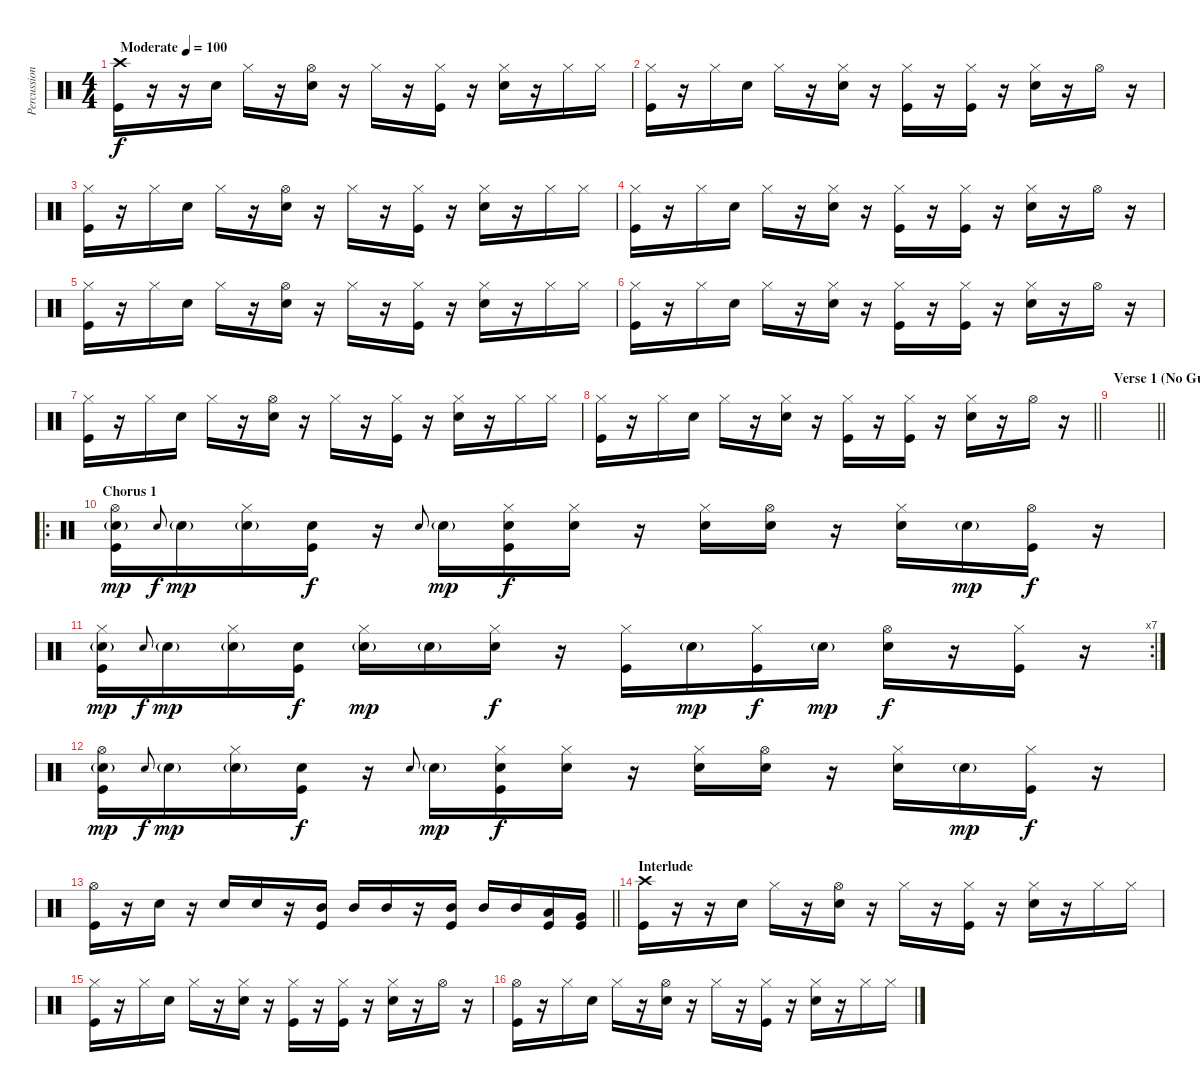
\track ("Percussion" "Percussion") {instrument percussion}
\staff {score}
\articulation defaults
\ts (4 4)
\tempo (100 "Moderate")
\clef neutral
\ks c
("Crash high (hit)" "Kick (hit)").16{dy f} r.16 r.16 "Snare (hit) 2".16 "Hi-Hat (closed)".16 r.16 ("Hi-Hat (open)" "Snare (hit) 2").16 r.16 "Hi-Hat (closed)".16 r.16 ("Hi-Hat (closed)" "Kick (hit)").16 r.16 ("Hi-Hat (closed)" "Snare (hit) 2").16 r.16 "Hi-Hat (closed)".16 "Hi-Hat (closed)".16 |
("Hi-Hat (closed)" "Kick (hit)").16 r.16 "Hi-Hat (closed)".16 "Snare (hit) 2".16 "Hi-Hat (closed)".16 r.16 ("Hi-Hat (closed)" "Snare (hit) 2").16 r.16 ("Hi-Hat (closed)" "Kick (hit)").16 r.16 ("Hi-Hat (closed)" "Kick (hit)").16 r.16 ("Hi-Hat (closed)" "Snare (hit) 2").16 r.16 "Hi-Hat (open)".16 r.16 |
("Hi-Hat (closed)" "Kick (hit)").16 r.16 "Hi-Hat (closed)".16 "Snare (hit) 2".16 "Hi-Hat (closed)".16 r.16 ("Hi-Hat (open)" "Snare (hit) 2").16 r.16 "Hi-Hat (closed)".16 r.16 ("Hi-Hat (closed)" "Kick (hit)").16 r.16 ("Hi-Hat (closed)" "Snare (hit) 2").16 r.16 "Hi-Hat (closed)".16 "Hi-Hat (closed)".16 |
("Hi-Hat (closed)" "Kick (hit)").16 r.16 "Hi-Hat (closed)".16 "Snare (hit) 2".16 "Hi-Hat (closed)".16 r.16 ("Hi-Hat (closed)" "Snare (hit) 2").16 r.16 ("Hi-Hat (closed)" "Kick (hit)").16 r.16 ("Hi-Hat (closed)" "Kick (hit)").16 r.16 ("Hi-Hat (closed)" "Snare (hit) 2").16 r.16 "Hi-Hat (open)".16 r.16 |
("Hi-Hat (closed)" "Kick (hit)").16 r.16 "Hi-Hat (closed)".16 "Snare (hit) 2".16 "Hi-Hat (closed)".16 r.16 ("Hi-Hat (open)" "Snare (hit) 2").16 r.16 "Hi-Hat (closed)".16 r.16 ("Hi-Hat (closed)" "Kick (hit)").16 r.16 ("Hi-Hat (closed)" "Snare (hit) 2").16 r.16 "Hi-Hat (closed)".16 "Hi-Hat (closed)".16 |
("Hi-Hat (closed)" "Kick (hit)").16 r.16 "Hi-Hat (closed)".16 "Snare (hit) 2".16 "Hi-Hat (closed)".16 r.16 ("Hi-Hat (closed)" "Snare (hit) 2").16 r.16 ("Hi-Hat (closed)" "Kick (hit)").16 r.16 ("Hi-Hat (closed)" "Kick (hit)").16 r.16 ("Hi-Hat (closed)" "Snare (hit) 2").16 r.16 "Hi-Hat (open)".16 r.16 |
("Hi-Hat (closed)" "Kick (hit)").16 r.16 "Hi-Hat (closed)".16 "Snare (hit) 2".16 "Hi-Hat (closed)".16 r.16 ("Hi-Hat (open)" "Snare (hit) 2").16 r.16 "Hi-Hat (closed)".16 r.16 ("Hi-Hat (closed)" "Kick (hit)").16 r.16 ("Hi-Hat (closed)" "Snare (hit) 2").16 r.16 "Hi-Hat (closed)".16 "Hi-Hat (closed)".16 |
\barLineRight lightlight
("Hi-Hat (closed)" "Kick (hit)").16 r.16 "Hi-Hat (closed)".16 "Snare (hit) 2".16 "Hi-Hat (closed)".16 r.16 ("Hi-Hat (closed)" "Snare (hit) 2").16 r.16 ("Hi-Hat (closed)" "Kick (hit)").16 r.16 ("Hi-Hat (closed)" "Kick (hit)").16 r.16 ("Hi-Hat (closed)" "Snare (hit) 2").16 r.16 "Hi-Hat (open)".16 r.16 |
\section ("" "Verse 1 (No Guitar)")
\barLineRight lightlight
|
\ro
\section ("" "Chorus 1")
("Hi-Hat (open)" "Snare (hit) 2"{g} "Kick (hit)").16{dy mp} "Snare (hit) 2".8{gr onbeat dy f} "Snare (hit) 2"{g}.16{dy mp} ("Hi-Hat (closed)" "Snare (hit) 2"{g}).16 ("Snare (hit) 2" "Kick (hit)").16{dy f} r.16 "Snare (hit) 2".8{gr onbeat} "Snare (hit) 2"{g}.16{dy mp} ("Hi-Hat (closed)" "Snare (hit) 2" "Kick (hit)").16{dy f} ("Hi-Hat (closed)" "Snare (hit) 2").16 r.16 ("Hi-Hat (closed)" "Snare (hit) 2").16 ("Hi-Hat (open)" "Snare (hit) 2").16 r.16 ("Hi-Hat (closed)" "Snare (hit) 2").16 "Snare (hit) 2"{g}.16{dy mp} ("Hi-Hat (open)" "Kick (hit)").16{dy f} r.16 |
\rc 7
("Hi-Hat (closed)" "Snare (hit) 2"{g} "Kick (hit)").16{dy mp} "Snare (hit) 2".8{gr onbeat dy f} "Snare (hit) 2"{g}.16{dy mp} ("Hi-Hat (closed)" "Snare (hit) 2"{g}).16 ("Snare (hit) 2" "Kick (hit)").16{dy f} ("Hi-Hat (closed)" "Snare (hit) 2"{g}).16{dy mp} "Snare (hit) 2"{g}.16 ("Hi-Hat (closed)" "Snare (hit) 2").16{dy f} r.16 ("Hi-Hat (closed)" "Kick (hit)").16 "Snare (hit) 2"{g}.16{dy mp} ("Hi-Hat (closed)" "Kick (hit)").16{dy f} "Snare (hit) 2"{g}.16{dy mp} ("Hi-Hat (open)" "Snare (hit) 2").16{dy f} r.16 ("Hi-Hat (closed)" "Kick (hit)").16 r.16 |
("Hi-Hat (open)" "Snare (hit) 2"{g} "Kick (hit)").16{dy mp} "Snare (hit) 2".8{gr onbeat dy f} "Snare (hit) 2"{g}.16{dy mp} ("Hi-Hat (closed)" "Snare (hit) 2"{g}).16 ("Snare (hit) 2" "Kick (hit)").16{dy f} r.16 "Snare (hit) 2".8{gr onbeat} "Snare (hit) 2"{g}.16{dy mp} ("Hi-Hat (closed)" "Snare (hit) 2" "Kick (hit)").16{dy f} ("Hi-Hat (closed)" "Snare (hit) 2").16 r.16 ("Hi-Hat (closed)" "Snare (hit) 2").16 ("Hi-Hat (open)" "Snare (hit) 2").16 r.16 ("Hi-Hat (closed)" "Snare (hit) 2").16 "Snare (hit) 2"{g}.16{dy mp} ("Hi-Hat (closed)" "Kick (hit)").16{dy f} r.16 |
\barLineRight lightlight
("Hi-Hat (open)" "Kick (hit)").16 r.16 "Snare (hit) 2".16 r.16 "Snare (hit) 2".16 "Snare (hit) 2".16 r.16 ("Mid Tom (hit)" "Kick (hit)").16 "Mid Tom (hit)".16 "Mid Tom (hit)".16 r.16 ("Mid Tom (hit)" "Kick (hit)").16 "Mid Tom (hit)".16 "Mid Tom (hit)".16 ("Low Tom (hit)" "Kick (hit)").16 ("Very Low Tom (hit)" "Kick (hit)").16 |
\section ("" "Interlude")
("Crash high (hit)" "Kick (hit)").16 r.16 r.16 "Snare (hit) 2".16 "Hi-Hat (closed)".16 r.16 ("Hi-Hat (open)" "Snare (hit) 2").16 r.16 "Hi-Hat (closed)".16 r.16 ("Hi-Hat (closed)" "Kick (hit)").16 r.16 ("Hi-Hat (closed)" "Snare (hit) 2").16 r.16 "Hi-Hat (closed)".16 "Hi-Hat (closed)".16 |
("Hi-Hat (closed)" "Kick (hit)").16 r.16 "Hi-Hat (closed)".16 "Snare (hit) 2".16 "Hi-Hat (closed)".16 r.16 ("Hi-Hat (closed)" "Snare (hit) 2").16 r.16 ("Hi-Hat (closed)" "Kick (hit)").16 r.16 ("Hi-Hat (closed)" "Kick (hit)").16 r.16 ("Hi-Hat (closed)" "Snare (hit) 2").16 r.16 "Hi-Hat (open)".16 r.16 |
("Hi-Hat (open)" "Kick (hit)").16 r.16 "Hi-Hat (closed)".16 "Snare (hit) 2".16 "Hi-Hat (closed)".16 r.16 ("Hi-Hat (open)" "Snare (hit) 2").16 r.16 "Hi-Hat (closed)".16 r.16 ("Hi-Hat (closed)" "Kick (hit)").16 r.16 ("Hi-Hat (closed)" "Snare (hit) 2").16 r.16 "Hi-Hat (closed)".16 "Hi-Hat (closed)".16
